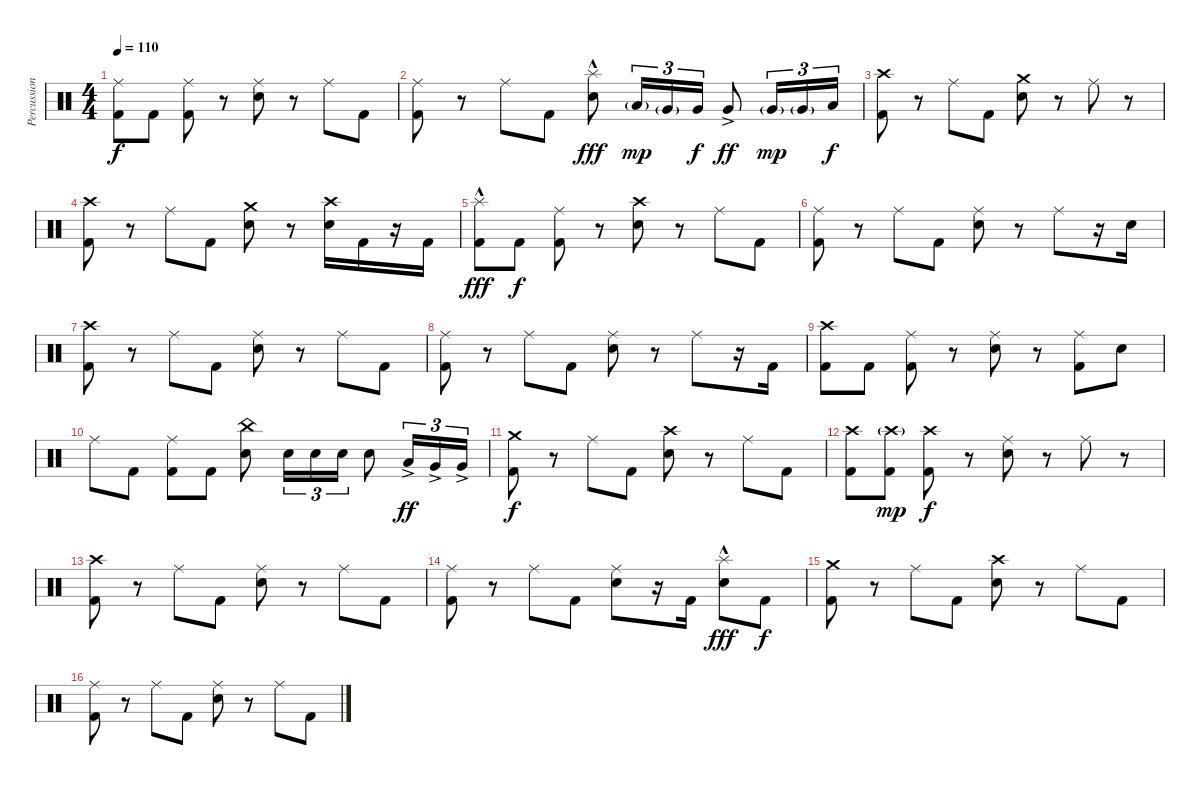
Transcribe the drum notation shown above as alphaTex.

\track ("Percussion" "Percussion") {instrument percussion}
\staff {score}
\articulation defaults
\ts (4 4)
\tempo 110
\clef neutral
\ks c
("Ride (middle)" "Kick (hit) 2").8{dy f} "Kick (hit) 2".8 ("Ride (middle)" "Kick (hit) 2").8 r.8 ("Ride (middle)" "Electric Snare (hit)").8 r.8 "Ride (middle)".8 "Kick (hit) 2".8 |
("Ride (middle)" "Kick (hit) 2").8 r.8 "Ride (middle)".8 "Kick (hit) 2".8 ("Splash (hit)"{hac} "Electric Snare (hit)").8{dy fff} "Low Tom (hit)"{g}.16{tu (3 2) dy mp} "Very Low Tom (hit)"{g}.16{tu (3 2)} "Very Low Tom (hit)".16{tu (3 2) dy f} "Very Low Tom (hit)"{ac}.8{dy ff} "Very Low Tom (hit)"{g}.16{tu (3 2) dy mp} "Very Low Tom (hit)"{g}.16{tu (3 2)} "Low Floor Tom (hit)".16{tu (3 2) dy f} |
("Crash high (hit)" "Kick (hit) 2").8 r.8 "Ride (middle)".8 "Kick (hit) 2".8 ("Crash medium (hit)" "Electric Snare (hit)").8 r.8 "Ride (middle)".8 r.8 |
("Crash high (hit)" "Kick (hit) 2").8 r.8 "Ride (middle)".8 "Kick (hit) 2".8 ("Crash medium (hit)" "Electric Snare (hit)").8 r.8 ("Crash high (hit)" "Electric Snare (hit)").16 "Kick (hit) 2".16 r.16 "Kick (hit) 2".16 |
("Splash (hit)"{hac} "Kick (hit) 2").8{dy fff} "Kick (hit) 2".8{dy f} ("Ride (middle)" "Kick (hit) 2").8 r.8 ("Crash high (hit)" "Electric Snare (hit)").8 r.8 "Ride (middle)".8 "Kick (hit) 2".8 |
("Ride (middle)" "Kick (hit) 2").8 r.8 "Ride (middle)".8 "Kick (hit) 2".8 ("Ride (middle)" "Electric Snare (hit)").8 r.8 "Ride (middle)".8 r.16 "Electric Snare (hit)".16 |
("Crash high (hit)" "Kick (hit) 2").8 r.8 "Ride (middle)".8 "Kick (hit) 2".8 ("Ride (middle)" "Electric Snare (hit)").8 r.8 "Ride (middle)".8 "Kick (hit) 2".8 |
("Ride (middle)" "Kick (hit) 2").8 r.8 "Ride (middle)".8 "Kick (hit) 2".8 ("Ride (middle)" "Electric Snare (hit)").8 r.8 "Ride (middle)".8 r.16 "Kick (hit) 2".16 |
("Crash high (hit)" "Kick (hit) 2").8 "Kick (hit) 2".8 ("Ride (middle)" "Kick (hit) 2").8 r.8 ("Ride (middle)" "Electric Snare (hit)").8 r.8 ("Ride (middle)" "Kick (hit) 2").8 "Electric Snare (hit)".8 |
"Ride (middle)".8 "Kick (hit) 2".8 ("Ride (middle)" "Kick (hit) 2").8 "Kick (hit) 2".8 ("China (hit)" "Electric Snare (hit)").8 "Electric Snare (hit)".16{tu (3 2)} "Electric Snare (hit)".16{tu (3 2)} "Electric Snare (hit)".16{tu (3 2)} "Electric Snare (hit)".8 "Low Tom (hit)"{ac}.16{tu (3 2) dy ff} "Very Low Tom (hit)"{ac}.16{tu (3 2)} "Very Low Tom (hit)"{ac}.16{tu (3 2)} |
("Crash medium (hit)" "Kick (hit) 2").8{dy f} r.8 "Ride (middle)".8 "Kick (hit) 2".8 ("Crash high (hit)" "Electric Snare (hit)").8 r.8 "Ride (middle)".8 "Kick (hit) 2".8 |
("Crash high (hit)" "Kick (hit) 2").8 ("Crash high (hit)"{g} "Kick (hit) 2").8{dy mp} ("Crash high (hit)" "Kick (hit) 2").8{dy f} r.8 ("Ride (middle)" "Electric Snare (hit)").8 r.8 "Ride (middle)".8 r.8 |
("Crash high (hit)" "Kick (hit) 2").8 r.8 "Ride (middle)".8 "Kick (hit) 2".8 ("Ride (middle)" "Electric Snare (hit)").8 r.8 "Ride (middle)".8 "Kick (hit) 2".8 |
("Ride (middle)" "Kick (hit) 2").8 r.8 "Ride (middle)".8 "Kick (hit) 2".8 ("Ride (middle)" "Electric Snare (hit)").8 r.16 "Kick (hit) 2".16 ("Splash (hit)"{hac} "Electric Snare (hit)").8{dy fff} "Kick (hit) 2".8{dy f} |
("Crash medium (hit)" "Kick (hit) 2").8 r.8 "Ride (middle)".8 "Kick (hit) 2".8 ("Crash high (hit)" "Electric Snare (hit)").8 r.8 "Ride (middle)".8 "Kick (hit) 2".8 |
("Ride (middle)" "Kick (hit) 2").8 r.8 "Ride (middle)".8 "Kick (hit) 2".8 ("Ride (middle)" "Electric Snare (hit)").8 r.8 "Ride (middle)".8 "Kick (hit) 2".8
